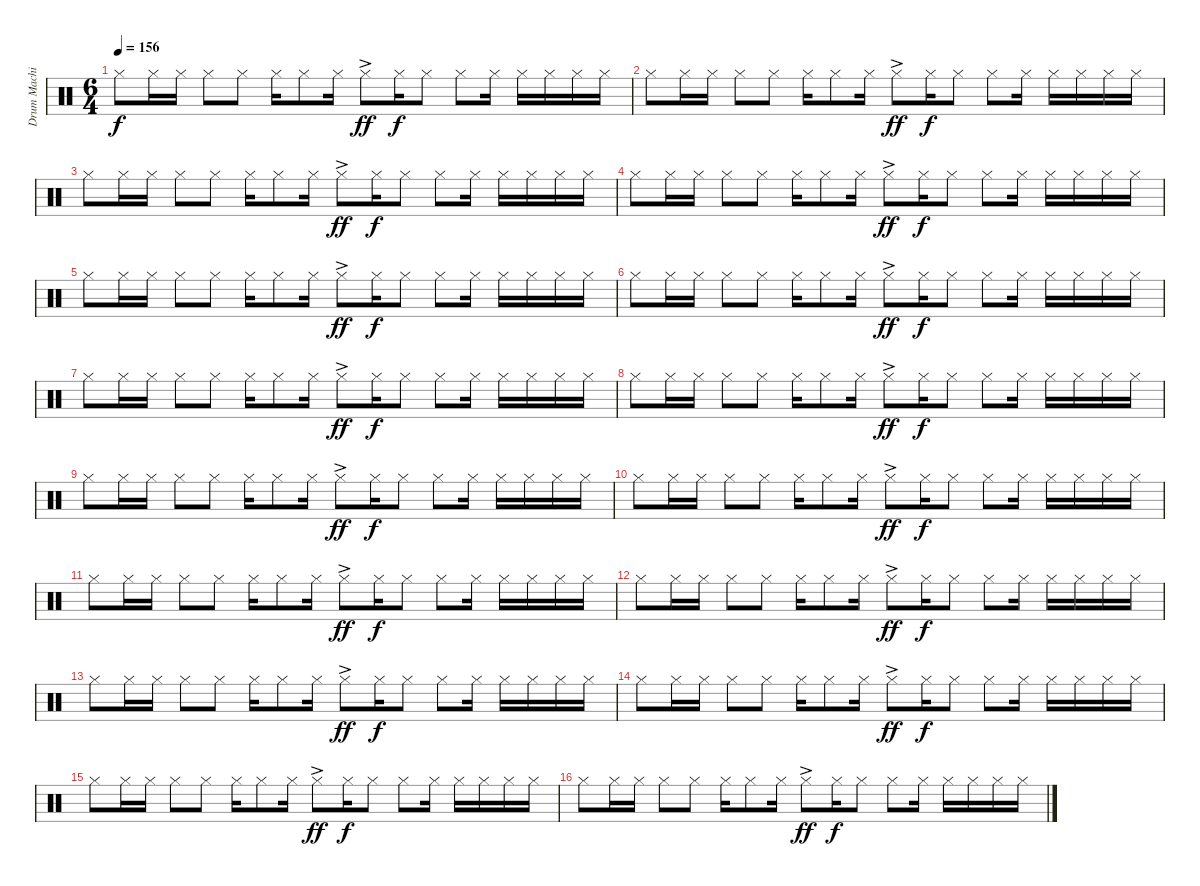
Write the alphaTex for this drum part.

\track ("Drum Machine" "Drum Machi") {instrument percussion bank 210}
\staff {score}
\articulation defaults
\ts (6 4)
\tempo 156
\clef neutral
\ks c "Hi-Hat (closed)".8{dy f} "Hi-Hat (closed)".16 "Hi-Hat (closed)".16 "Hi-Hat (closed)".8 "Hi-Hat (closed)".8 "Hi-Hat (closed)".16 "Hi-Hat (closed)".8 "Hi-Hat (closed)".16 "Hi-Hat (closed)"{ac}.8{dy ff} "Hi-Hat (closed)".16{dy f} "Hi-Hat (closed)".8 "Hi-Hat (closed)".8 "Hi-Hat (closed)".16 "Hi-Hat (closed)".16 "Hi-Hat (closed)".16 "Hi-Hat (closed)".16 "Hi-Hat (closed)".16
|
"Hi-Hat (closed)".8 "Hi-Hat (closed)".16 "Hi-Hat (closed)".16 "Hi-Hat (closed)".8 "Hi-Hat (closed)".8 "Hi-Hat (closed)".16 "Hi-Hat (closed)".8 "Hi-Hat (closed)".16 "Hi-Hat (closed)"{ac}.8{dy ff} "Hi-Hat (closed)".16{dy f} "Hi-Hat (closed)".8 "Hi-Hat (closed)".8 "Hi-Hat (closed)".16 "Hi-Hat (closed)".16 "Hi-Hat (closed)".16 "Hi-Hat (closed)".16 "Hi-Hat (closed)".16 |
"Hi-Hat (closed)".8 "Hi-Hat (closed)".16 "Hi-Hat (closed)".16 "Hi-Hat (closed)".8 "Hi-Hat (closed)".8 "Hi-Hat (closed)".16 "Hi-Hat (closed)".8 "Hi-Hat (closed)".16 "Hi-Hat (closed)"{ac}.8{dy ff} "Hi-Hat (closed)".16{dy f} "Hi-Hat (closed)".8 "Hi-Hat (closed)".8 "Hi-Hat (closed)".16 "Hi-Hat (closed)".16 "Hi-Hat (closed)".16 "Hi-Hat (closed)".16 "Hi-Hat (closed)".16 |
"Hi-Hat (closed)".8 "Hi-Hat (closed)".16 "Hi-Hat (closed)".16 "Hi-Hat (closed)".8 "Hi-Hat (closed)".8 "Hi-Hat (closed)".16 "Hi-Hat (closed)".8 "Hi-Hat (closed)".16 "Hi-Hat (closed)"{ac}.8{dy ff} "Hi-Hat (closed)".16{dy f} "Hi-Hat (closed)".8 "Hi-Hat (closed)".8 "Hi-Hat (closed)".16 "Hi-Hat (closed)".16 "Hi-Hat (closed)".16 "Hi-Hat (closed)".16 "Hi-Hat (closed)".16 |
"Hi-Hat (closed)".8 "Hi-Hat (closed)".16 "Hi-Hat (closed)".16 "Hi-Hat (closed)".8 "Hi-Hat (closed)".8 "Hi-Hat (closed)".16 "Hi-Hat (closed)".8 "Hi-Hat (closed)".16 "Hi-Hat (closed)"{ac}.8{dy ff} "Hi-Hat (closed)".16{dy f} "Hi-Hat (closed)".8 "Hi-Hat (closed)".8 "Hi-Hat (closed)".16 "Hi-Hat (closed)".16 "Hi-Hat (closed)".16 "Hi-Hat (closed)".16 "Hi-Hat (closed)".16 |
"Hi-Hat (closed)".8 "Hi-Hat (closed)".16 "Hi-Hat (closed)".16 "Hi-Hat (closed)".8 "Hi-Hat (closed)".8 "Hi-Hat (closed)".16 "Hi-Hat (closed)".8 "Hi-Hat (closed)".16 "Hi-Hat (closed)"{ac}.8{dy ff} "Hi-Hat (closed)".16{dy f} "Hi-Hat (closed)".8 "Hi-Hat (closed)".8 "Hi-Hat (closed)".16 "Hi-Hat (closed)".16 "Hi-Hat (closed)".16 "Hi-Hat (closed)".16 "Hi-Hat (closed)".16 |
"Hi-Hat (closed)".8 "Hi-Hat (closed)".16 "Hi-Hat (closed)".16 "Hi-Hat (closed)".8 "Hi-Hat (closed)".8 "Hi-Hat (closed)".16 "Hi-Hat (closed)".8 "Hi-Hat (closed)".16 "Hi-Hat (closed)"{ac}.8{dy ff} "Hi-Hat (closed)".16{dy f} "Hi-Hat (closed)".8 "Hi-Hat (closed)".8 "Hi-Hat (closed)".16 "Hi-Hat (closed)".16 "Hi-Hat (closed)".16 "Hi-Hat (closed)".16 "Hi-Hat (closed)".16 |
"Hi-Hat (closed)".8 "Hi-Hat (closed)".16 "Hi-Hat (closed)".16 "Hi-Hat (closed)".8 "Hi-Hat (closed)".8 "Hi-Hat (closed)".16 "Hi-Hat (closed)".8 "Hi-Hat (closed)".16 "Hi-Hat (closed)"{ac}.8{dy ff} "Hi-Hat (closed)".16{dy f} "Hi-Hat (closed)".8 "Hi-Hat (closed)".8 "Hi-Hat (closed)".16 "Hi-Hat (closed)".16 "Hi-Hat (closed)".16 "Hi-Hat (closed)".16 "Hi-Hat (closed)".16 |
"Hi-Hat (closed)".8 "Hi-Hat (closed)".16 "Hi-Hat (closed)".16 "Hi-Hat (closed)".8 "Hi-Hat (closed)".8 "Hi-Hat (closed)".16 "Hi-Hat (closed)".8 "Hi-Hat (closed)".16 "Hi-Hat (closed)"{ac}.8{dy ff} "Hi-Hat (closed)".16{dy f} "Hi-Hat (closed)".8 "Hi-Hat (closed)".8 "Hi-Hat (closed)".16 "Hi-Hat (closed)".16 "Hi-Hat (closed)".16 "Hi-Hat (closed)".16 "Hi-Hat (closed)".16 |
"Hi-Hat (closed)".8 "Hi-Hat (closed)".16 "Hi-Hat (closed)".16 "Hi-Hat (closed)".8 "Hi-Hat (closed)".8 "Hi-Hat (closed)".16 "Hi-Hat (closed)".8 "Hi-Hat (closed)".16 "Hi-Hat (closed)"{ac}.8{dy ff} "Hi-Hat (closed)".16{dy f} "Hi-Hat (closed)".8 "Hi-Hat (closed)".8 "Hi-Hat (closed)".16 "Hi-Hat (closed)".16 "Hi-Hat (closed)".16 "Hi-Hat (closed)".16 "Hi-Hat (closed)".16 |
"Hi-Hat (closed)".8 "Hi-Hat (closed)".16 "Hi-Hat (closed)".16 "Hi-Hat (closed)".8 "Hi-Hat (closed)".8 "Hi-Hat (closed)".16 "Hi-Hat (closed)".8 "Hi-Hat (closed)".16 "Hi-Hat (closed)"{ac}.8{dy ff} "Hi-Hat (closed)".16{dy f} "Hi-Hat (closed)".8 "Hi-Hat (closed)".8 "Hi-Hat (closed)".16 "Hi-Hat (closed)".16 "Hi-Hat (closed)".16 "Hi-Hat (closed)".16 "Hi-Hat (closed)".16 |
"Hi-Hat (closed)".8 "Hi-Hat (closed)".16 "Hi-Hat (closed)".16 "Hi-Hat (closed)".8 "Hi-Hat (closed)".8 "Hi-Hat (closed)".16 "Hi-Hat (closed)".8 "Hi-Hat (closed)".16 "Hi-Hat (closed)"{ac}.8{dy ff} "Hi-Hat (closed)".16{dy f} "Hi-Hat (closed)".8 "Hi-Hat (closed)".8 "Hi-Hat (closed)".16 "Hi-Hat (closed)".16 "Hi-Hat (closed)".16 "Hi-Hat (closed)".16 "Hi-Hat (closed)".16 |
"Hi-Hat (closed)".8 "Hi-Hat (closed)".16 "Hi-Hat (closed)".16 "Hi-Hat (closed)".8 "Hi-Hat (closed)".8 "Hi-Hat (closed)".16 "Hi-Hat (closed)".8 "Hi-Hat (closed)".16 "Hi-Hat (closed)"{ac}.8{dy ff} "Hi-Hat (closed)".16{dy f} "Hi-Hat (closed)".8 "Hi-Hat (closed)".8 "Hi-Hat (closed)".16 "Hi-Hat (closed)".16 "Hi-Hat (closed)".16 "Hi-Hat (closed)".16 "Hi-Hat (closed)".16 |
"Hi-Hat (closed)".8 "Hi-Hat (closed)".16 "Hi-Hat (closed)".16 "Hi-Hat (closed)".8 "Hi-Hat (closed)".8 "Hi-Hat (closed)".16 "Hi-Hat (closed)".8 "Hi-Hat (closed)".16 "Hi-Hat (closed)"{ac}.8{dy ff} "Hi-Hat (closed)".16{dy f} "Hi-Hat (closed)".8 "Hi-Hat (closed)".8 "Hi-Hat (closed)".16 "Hi-Hat (closed)".16 "Hi-Hat (closed)".16 "Hi-Hat (closed)".16 "Hi-Hat (closed)".16 |
"Hi-Hat (closed)".8 "Hi-Hat (closed)".16 "Hi-Hat (closed)".16 "Hi-Hat (closed)".8 "Hi-Hat (closed)".8 "Hi-Hat (closed)".16 "Hi-Hat (closed)".8 "Hi-Hat (closed)".16 "Hi-Hat (closed)"{ac}.8{dy ff} "Hi-Hat (closed)".16{dy f} "Hi-Hat (closed)".8 "Hi-Hat (closed)".8 "Hi-Hat (closed)".16 "Hi-Hat (closed)".16 "Hi-Hat (closed)".16 "Hi-Hat (closed)".16 "Hi-Hat (closed)".16 |
"Hi-Hat (closed)".8 "Hi-Hat (closed)".16 "Hi-Hat (closed)".16 "Hi-Hat (closed)".8 "Hi-Hat (closed)".8 "Hi-Hat (closed)".16 "Hi-Hat (closed)".8 "Hi-Hat (closed)".16 "Hi-Hat (closed)"{ac}.8{dy ff} "Hi-Hat (closed)".16{dy f} "Hi-Hat (closed)".8 "Hi-Hat (closed)".8 "Hi-Hat (closed)".16 "Hi-Hat (closed)".16 "Hi-Hat (closed)".16 "Hi-Hat (closed)".16 "Hi-Hat (closed)".16
